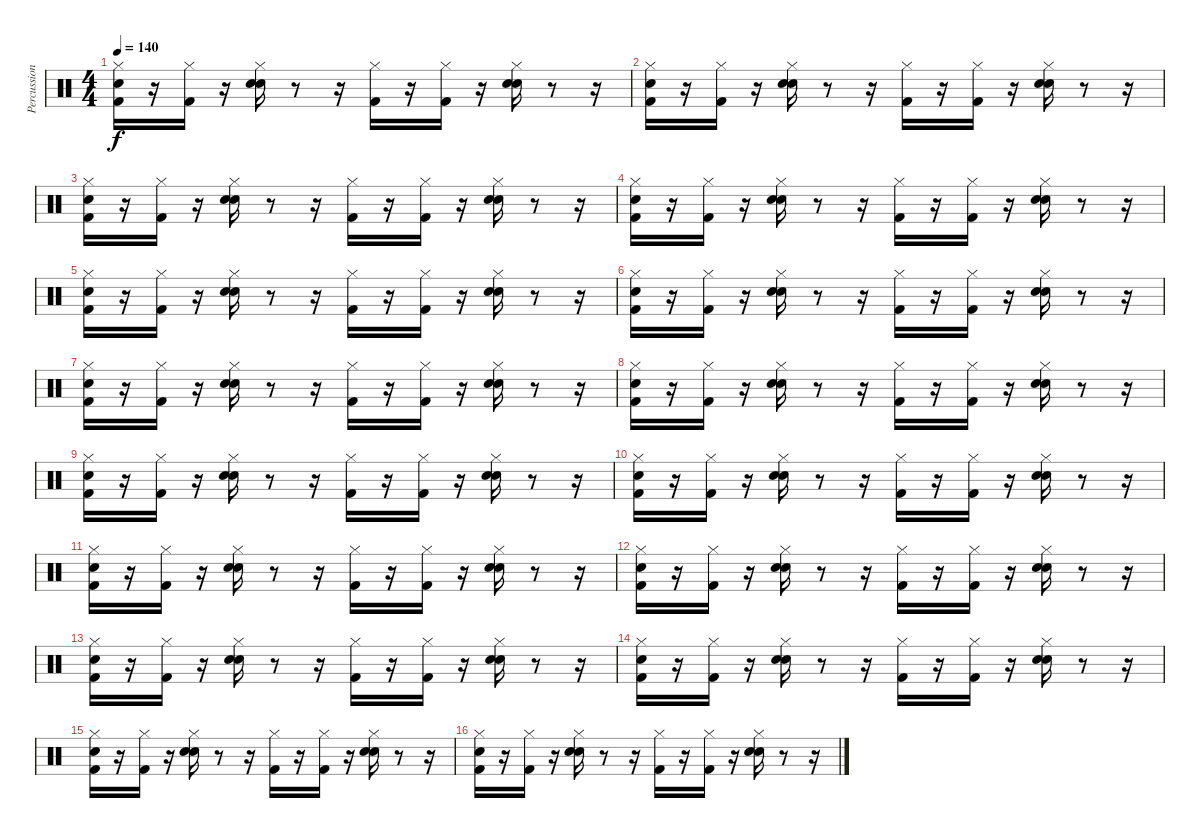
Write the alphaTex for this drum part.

\track ("Percussion" "Percussion") {instrument percussion}
\staff {score}
\articulation defaults
\ts (4 4)
\tempo 140
\clef neutral
\ks c
("Snare (hit)" "Kick (hit) 2" "Hi-Hat (closed)").16{dy f} r.16 ("Kick (hit) 2" "Hi-Hat (closed)").16 r.16 ("Hand Clap (hit)" "Hi-Hat (closed)" "Snare (hit) 2").16 r.8 r.16 ("Hi-Hat (closed)" "Kick (hit) 2").16 r.16 ("Hi-Hat (closed)" "Kick (hit) 2").16 r.16 ("Snare (hit) 2" "Hand Clap (hit)" "Hi-Hat (closed)").16 r.8 r.16 |
("Snare (hit)" "Kick (hit) 2" "Hi-Hat (closed)").16 r.16 ("Kick (hit) 2" "Hi-Hat (closed)").16 r.16 ("Hand Clap (hit)" "Hi-Hat (closed)" "Snare (hit) 2").16 r.8 r.16 ("Hi-Hat (closed)" "Kick (hit) 2").16 r.16 ("Hi-Hat (closed)" "Kick (hit) 2").16 r.16 ("Snare (hit) 2" "Hand Clap (hit)" "Hi-Hat (closed)").16 r.8 r.16 |
("Snare (hit)" "Kick (hit) 2" "Hi-Hat (closed)").16 r.16 ("Kick (hit) 2" "Hi-Hat (closed)").16 r.16 ("Hand Clap (hit)" "Hi-Hat (closed)" "Snare (hit) 2").16 r.8 r.16 ("Hi-Hat (closed)" "Kick (hit) 2").16 r.16 ("Hi-Hat (closed)" "Kick (hit) 2").16 r.16 ("Snare (hit) 2" "Hand Clap (hit)" "Hi-Hat (closed)").16 r.8 r.16 |
("Snare (hit)" "Kick (hit) 2" "Hi-Hat (closed)").16 r.16 ("Kick (hit) 2" "Hi-Hat (closed)").16 r.16 ("Hand Clap (hit)" "Hi-Hat (closed)" "Snare (hit) 2").16 r.8 r.16 ("Hi-Hat (closed)" "Kick (hit) 2").16 r.16 ("Hi-Hat (closed)" "Kick (hit) 2").16 r.16 ("Snare (hit) 2" "Hand Clap (hit)" "Hi-Hat (closed)").16 r.8 r.16 |
("Snare (hit)" "Kick (hit) 2" "Hi-Hat (closed)").16 r.16 ("Kick (hit) 2" "Hi-Hat (closed)").16 r.16 ("Hand Clap (hit)" "Hi-Hat (closed)" "Snare (hit) 2").16 r.8 r.16 ("Hi-Hat (closed)" "Kick (hit) 2").16 r.16 ("Hi-Hat (closed)" "Kick (hit) 2").16 r.16 ("Snare (hit) 2" "Hand Clap (hit)" "Hi-Hat (closed)").16 r.8 r.16 |
("Snare (hit)" "Kick (hit) 2" "Hi-Hat (closed)").16 r.16 ("Kick (hit) 2" "Hi-Hat (closed)").16 r.16 ("Hand Clap (hit)" "Hi-Hat (closed)" "Snare (hit) 2").16 r.8 r.16 ("Hi-Hat (closed)" "Kick (hit) 2").16 r.16 ("Hi-Hat (closed)" "Kick (hit) 2").16 r.16 ("Snare (hit) 2" "Hand Clap (hit)" "Hi-Hat (closed)").16 r.8 r.16 |
("Snare (hit)" "Kick (hit) 2" "Hi-Hat (closed)").16 r.16 ("Kick (hit) 2" "Hi-Hat (closed)").16 r.16 ("Hand Clap (hit)" "Hi-Hat (closed)" "Snare (hit) 2").16 r.8 r.16 ("Hi-Hat (closed)" "Kick (hit) 2").16 r.16 ("Hi-Hat (closed)" "Kick (hit) 2").16 r.16 ("Snare (hit) 2" "Hand Clap (hit)" "Hi-Hat (closed)").16 r.8 r.16 |
("Snare (hit)" "Kick (hit) 2" "Hi-Hat (closed)").16 r.16 ("Kick (hit) 2" "Hi-Hat (closed)").16 r.16 ("Hand Clap (hit)" "Hi-Hat (closed)" "Snare (hit) 2").16 r.8 r.16 ("Hi-Hat (closed)" "Kick (hit) 2").16 r.16 ("Hi-Hat (closed)" "Kick (hit) 2").16 r.16 ("Snare (hit) 2" "Hand Clap (hit)" "Hi-Hat (closed)").16 r.8 r.16 |
("Snare (hit)" "Kick (hit) 2" "Hi-Hat (closed)").16 r.16 ("Kick (hit) 2" "Hi-Hat (closed)").16 r.16 ("Hand Clap (hit)" "Hi-Hat (closed)" "Snare (hit) 2").16 r.8 r.16 ("Hi-Hat (closed)" "Kick (hit) 2").16 r.16 ("Hi-Hat (closed)" "Kick (hit) 2").16 r.16 ("Snare (hit) 2" "Hand Clap (hit)" "Hi-Hat (closed)").16 r.8 r.16 |
("Snare (hit)" "Kick (hit) 2" "Hi-Hat (closed)").16 r.16 ("Kick (hit) 2" "Hi-Hat (closed)").16 r.16 ("Hand Clap (hit)" "Hi-Hat (closed)" "Snare (hit) 2").16 r.8 r.16 ("Hi-Hat (closed)" "Kick (hit) 2").16 r.16 ("Hi-Hat (closed)" "Kick (hit) 2").16 r.16 ("Snare (hit) 2" "Hand Clap (hit)" "Hi-Hat (closed)").16 r.8 r.16 |
("Snare (hit)" "Kick (hit) 2" "Hi-Hat (closed)").16 r.16 ("Kick (hit) 2" "Hi-Hat (closed)").16 r.16 ("Hand Clap (hit)" "Hi-Hat (closed)" "Snare (hit) 2").16 r.8 r.16 ("Hi-Hat (closed)" "Kick (hit) 2").16 r.16 ("Hi-Hat (closed)" "Kick (hit) 2").16 r.16 ("Snare (hit) 2" "Hand Clap (hit)" "Hi-Hat (closed)").16 r.8 r.16 |
("Snare (hit)" "Kick (hit) 2" "Hi-Hat (closed)").16 r.16 ("Kick (hit) 2" "Hi-Hat (closed)").16 r.16 ("Hand Clap (hit)" "Hi-Hat (closed)" "Snare (hit) 2").16 r.8 r.16 ("Hi-Hat (closed)" "Kick (hit) 2").16 r.16 ("Hi-Hat (closed)" "Kick (hit) 2").16 r.16 ("Snare (hit) 2" "Hand Clap (hit)" "Hi-Hat (closed)").16 r.8 r.16 |
("Snare (hit)" "Kick (hit) 2" "Hi-Hat (closed)").16 r.16 ("Kick (hit) 2" "Hi-Hat (closed)").16 r.16 ("Hand Clap (hit)" "Hi-Hat (closed)" "Snare (hit) 2").16 r.8 r.16 ("Hi-Hat (closed)" "Kick (hit) 2").16 r.16 ("Hi-Hat (closed)" "Kick (hit) 2").16 r.16 ("Snare (hit) 2" "Hand Clap (hit)" "Hi-Hat (closed)").16 r.8 r.16 |
("Snare (hit)" "Kick (hit) 2" "Hi-Hat (closed)").16 r.16 ("Kick (hit) 2" "Hi-Hat (closed)").16 r.16 ("Hand Clap (hit)" "Hi-Hat (closed)" "Snare (hit) 2").16 r.8 r.16 ("Hi-Hat (closed)" "Kick (hit) 2").16 r.16 ("Hi-Hat (closed)" "Kick (hit) 2").16 r.16 ("Snare (hit) 2" "Hand Clap (hit)" "Hi-Hat (closed)").16 r.8 r.16 |
("Snare (hit)" "Kick (hit) 2" "Hi-Hat (closed)").16 r.16 ("Kick (hit) 2" "Hi-Hat (closed)").16 r.16 ("Hand Clap (hit)" "Hi-Hat (closed)" "Snare (hit) 2").16 r.8 r.16 ("Hi-Hat (closed)" "Kick (hit) 2").16 r.16 ("Hi-Hat (closed)" "Kick (hit) 2").16 r.16 ("Snare (hit) 2" "Hand Clap (hit)" "Hi-Hat (closed)").16 r.8 r.16 |
("Snare (hit)" "Kick (hit) 2" "Hi-Hat (closed)").16 r.16 ("Kick (hit) 2" "Hi-Hat (closed)").16 r.16 ("Hand Clap (hit)" "Hi-Hat (closed)" "Snare (hit) 2").16 r.8 r.16 ("Hi-Hat (closed)" "Kick (hit) 2").16 r.16 ("Hi-Hat (closed)" "Kick (hit) 2").16 r.16 ("Snare (hit) 2" "Hand Clap (hit)" "Hi-Hat (closed)").16 r.8 r.16
